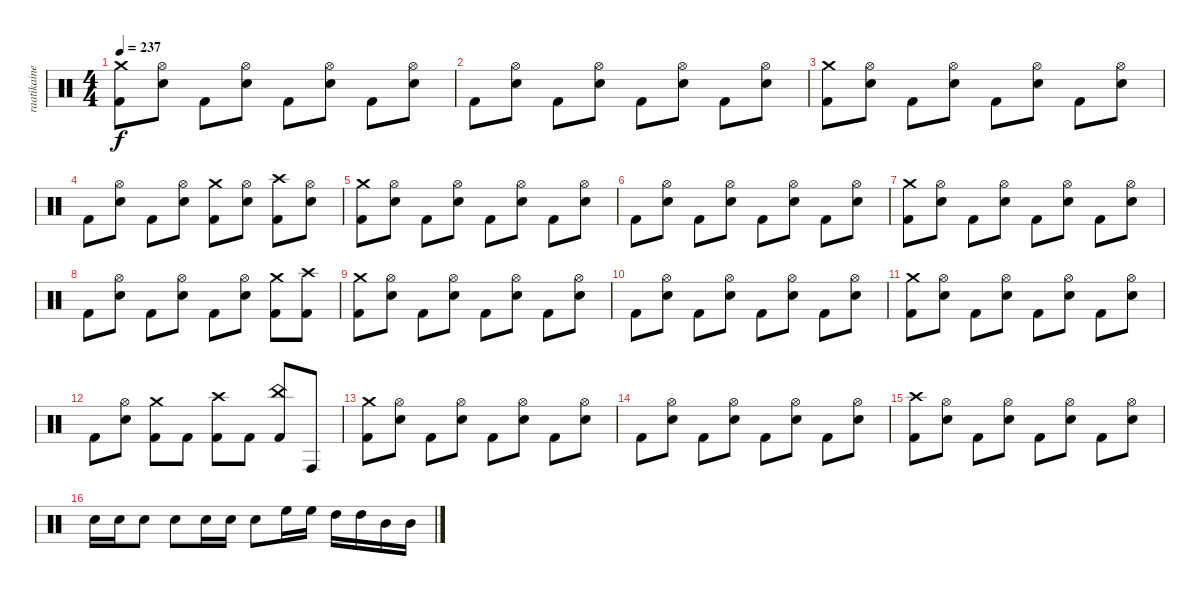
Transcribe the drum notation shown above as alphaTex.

\track ("raatikainen" "raatikaine") {instrument percussion}
\staff {score}
\articulation defaults
\ts (4 4)
\tempo 237
\clef neutral
\ks c
("Crash medium (hit)" "Kick (hit) 2").8{dy f} ("Hi-Hat (open)" "Snare (hit) 2").8 "Kick (hit) 2".8 ("Hi-Hat (open)" "Snare (hit) 2").8 "Kick (hit) 2".8 ("Hi-Hat (open)" "Snare (hit) 2").8 "Kick (hit) 2".8 ("Hi-Hat (open)" "Snare (hit) 2").8 |
"Kick (hit) 2".8 ("Hi-Hat (open)" "Snare (hit) 2").8 "Kick (hit) 2".8 ("Hi-Hat (open)" "Snare (hit) 2").8 "Kick (hit) 2".8 ("Hi-Hat (open)" "Snare (hit) 2").8 "Kick (hit) 2".8 ("Hi-Hat (open)" "Snare (hit) 2").8 |
("Crash medium (hit)" "Kick (hit) 2").8 ("Hi-Hat (open)" "Snare (hit) 2").8 "Kick (hit) 2".8 ("Hi-Hat (open)" "Snare (hit) 2").8 "Kick (hit) 2".8 ("Hi-Hat (open)" "Snare (hit) 2").8 "Kick (hit) 2".8 ("Hi-Hat (open)" "Snare (hit) 2").8 |
"Kick (hit) 2".8 ("Hi-Hat (open)" "Snare (hit) 2").8 "Kick (hit) 2".8 ("Hi-Hat (open)" "Snare (hit) 2").8 ("Crash medium (hit)" "Kick (hit) 2").8 ("Hi-Hat (open)" "Snare (hit) 2").8 ("Crash high (hit)" "Kick (hit) 2").8 ("Hi-Hat (open)" "Snare (hit) 2").8 |
("Crash medium (hit)" "Kick (hit) 2").8 ("Hi-Hat (open)" "Snare (hit) 2").8 "Kick (hit) 2".8 ("Hi-Hat (open)" "Snare (hit) 2").8 "Kick (hit) 2".8 ("Hi-Hat (open)" "Snare (hit) 2").8 "Kick (hit) 2".8 ("Hi-Hat (open)" "Snare (hit) 2").8 |
"Kick (hit) 2".8 ("Hi-Hat (open)" "Snare (hit) 2").8 "Kick (hit) 2".8 ("Hi-Hat (open)" "Snare (hit) 2").8 "Kick (hit) 2".8 ("Hi-Hat (open)" "Snare (hit) 2").8 "Kick (hit) 2".8 ("Hi-Hat (open)" "Snare (hit) 2").8 |
("Crash medium (hit)" "Kick (hit) 2").8 ("Hi-Hat (open)" "Snare (hit) 2").8 "Kick (hit) 2".8 ("Hi-Hat (open)" "Snare (hit) 2").8 "Kick (hit) 2".8 ("Hi-Hat (open)" "Snare (hit) 2").8 "Kick (hit) 2".8 ("Hi-Hat (open)" "Snare (hit) 2").8 |
"Kick (hit) 2".8 ("Hi-Hat (open)" "Snare (hit) 2").8 "Kick (hit) 2".8 ("Hi-Hat (open)" "Snare (hit) 2").8 "Kick (hit) 2".8 ("Hi-Hat (open)" "Snare (hit) 2").8 ("Crash medium (hit)" "Kick (hit) 2").8 ("Crash high (hit)" "Kick (hit) 2").8 |
("Crash medium (hit)" "Kick (hit) 2").8 ("Hi-Hat (open)" "Snare (hit) 2").8 "Kick (hit) 2".8 ("Hi-Hat (open)" "Snare (hit) 2").8 "Kick (hit) 2".8 ("Hi-Hat (open)" "Snare (hit) 2").8 "Kick (hit) 2".8 ("Hi-Hat (open)" "Snare (hit) 2").8 |
"Kick (hit) 2".8 ("Hi-Hat (open)" "Snare (hit) 2").8 "Kick (hit) 2".8 ("Hi-Hat (open)" "Snare (hit) 2").8 "Kick (hit) 2".8 ("Hi-Hat (open)" "Snare (hit) 2").8 "Kick (hit) 2".8 ("Hi-Hat (open)" "Snare (hit) 2").8 |
("Crash medium (hit)" "Kick (hit) 2").8 ("Hi-Hat (open)" "Snare (hit) 2").8 "Kick (hit) 2".8 ("Hi-Hat (open)" "Snare (hit) 2").8 "Kick (hit) 2".8 ("Hi-Hat (open)" "Snare (hit) 2").8 "Kick (hit) 2".8 ("Hi-Hat (open)" "Snare (hit) 2").8 |
"Kick (hit) 2".8 ("Hi-Hat (open)" "Snare (hit) 2").8 ("Crash medium (hit)" "Kick (hit) 2").8 "Kick (hit) 2".8 ("Crash high (hit)" "Kick (hit) 2").8 "Kick (hit) 2".8 ("China (hit)" "Kick (hit) 2").8 "Conga high (hit)".8 |
("Crash medium (hit)" "Kick (hit) 2").8 ("Hi-Hat (open)" "Snare (hit) 2").8 "Kick (hit) 2".8 ("Hi-Hat (open)" "Snare (hit) 2").8 "Kick (hit) 2".8 ("Hi-Hat (open)" "Snare (hit) 2").8 "Kick (hit) 2".8 ("Hi-Hat (open)" "Snare (hit) 2").8 |
"Kick (hit) 2".8 ("Hi-Hat (open)" "Snare (hit) 2").8 "Kick (hit) 2".8 ("Hi-Hat (open)" "Snare (hit) 2").8 "Kick (hit) 2".8 ("Hi-Hat (open)" "Snare (hit) 2").8 "Kick (hit) 2".8 ("Hi-Hat (open)" "Snare (hit) 2").8 |
("Crash high (hit)" "Kick (hit) 2").8 ("Hi-Hat (open)" "Snare (hit) 2").8 "Kick (hit) 2".8 ("Hi-Hat (open)" "Snare (hit) 2").8 "Kick (hit) 2".8 ("Hi-Hat (open)" "Snare (hit) 2").8 "Kick (hit) 2".8 ("Hi-Hat (open)" "Snare (hit) 2").8 |
"Snare (hit) 2".16 "Snare (hit) 2".16 "Snare (hit) 2".8 "Snare (hit) 2".8 "Snare (hit) 2".16 "Snare (hit) 2".16 "Snare (hit) 2".8 "High Floor Tom (hit)".16 "High Floor Tom (hit)".16 "High Tom (hit)".16 "High Tom (hit)".16 "Mid Tom (hit)".16{txt ""} "Mid Tom (hit)".16
